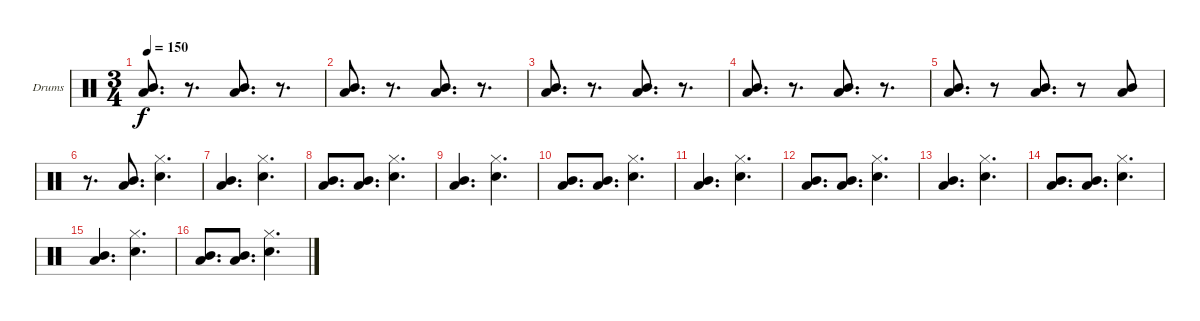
\defaultSystemsLayout 4
\bracketExtendMode groupsimilarinstruments
\firstSystemTrackNameOrientation horizontal
\otherSystemsTrackNameOrientation horizontal
\track ("Drumkit" "Drums") {instrument percussion}
\staff {score}
\articulation defaults
\ts (3 4)
\tempo 150
\clef neutral
\scale
0.472222
\ks c
("Mid Tom (hit)" "Low Tom (hit)").8{d dy f} r.8{d} ("Low Tom (hit)" "Mid Tom (hit)").8{d} r.8{d} |
\scale
0.263889 ("Mid Tom (hit)" "Low Tom (hit)").8{d} r.8{d} ("Low Tom (hit)" "Mid Tom (hit)").8{d} r.8{d} |
\scale
0.263889 ("Mid Tom (hit)" "Low Tom (hit)").8{d} r.8{d} ("Low Tom (hit)" "Mid Tom (hit)").8{d} r.8{d} |
("Mid Tom (hit)" "Low Tom (hit)").8{d} r.8{d} ("Low Tom (hit)" "Mid Tom (hit)").8{d} r.8{d} |
("Low Tom (hit)" "Mid Tom (hit)").8{d} r.8 ("Low Tom (hit)" "Mid Tom (hit)").8{d} r.8 ("Low Tom (hit)" "Mid Tom (hit)").8 |
r.8{d} ("Mid Tom (hit)" "Low Tom (hit)").8{d} ("Snare (hit) 2" "Hi-Hat (closed)").4{d} |
("Low Tom (hit)" "Mid Tom (hit)").4{d} ("Snare (hit) 2" "Hi-Hat (closed)").4{d} |
("Low Tom (hit)" "Mid Tom (hit)").8{d} ("Mid Tom (hit)" "Low Tom (hit)").8{d} ("Snare (hit) 2" "Hi-Hat (closed)").4{d} |
("Low Tom (hit)" "Mid Tom (hit)").4{d} ("Snare (hit) 2" "Hi-Hat (closed)").4{d} |
("Low Tom (hit)" "Mid Tom (hit)").8{d} ("Mid Tom (hit)" "Low Tom (hit)").8{d} ("Snare (hit) 2" "Hi-Hat (closed)").4{d} |
("Low Tom (hit)" "Mid Tom (hit)").4{d} ("Snare (hit) 2" "Hi-Hat (closed)").4{d} |
("Low Tom (hit)" "Mid Tom (hit)").8{d} ("Mid Tom (hit)" "Low Tom (hit)").8{d} ("Snare (hit) 2" "Hi-Hat (closed)").4{d} |
("Low Tom (hit)" "Mid Tom (hit)").4{d} ("Snare (hit) 2" "Hi-Hat (closed)").4{d} |
("Mid Tom (hit)" "Low Tom (hit)").8{d} ("Mid Tom (hit)" "Low Tom (hit)").8{d} ("Snare (hit) 2" "Hi-Hat (closed)").4{d} |
("Low Tom (hit)" "Mid Tom (hit)").4{d} ("Snare (hit) 2" "Hi-Hat (closed)").4{d} |
("Low Tom (hit)" "Mid Tom (hit)").8{d} ("Mid Tom (hit)" "Low Tom (hit)").8{d} ("Snare (hit) 2" "Hi-Hat (closed)").4{d}
